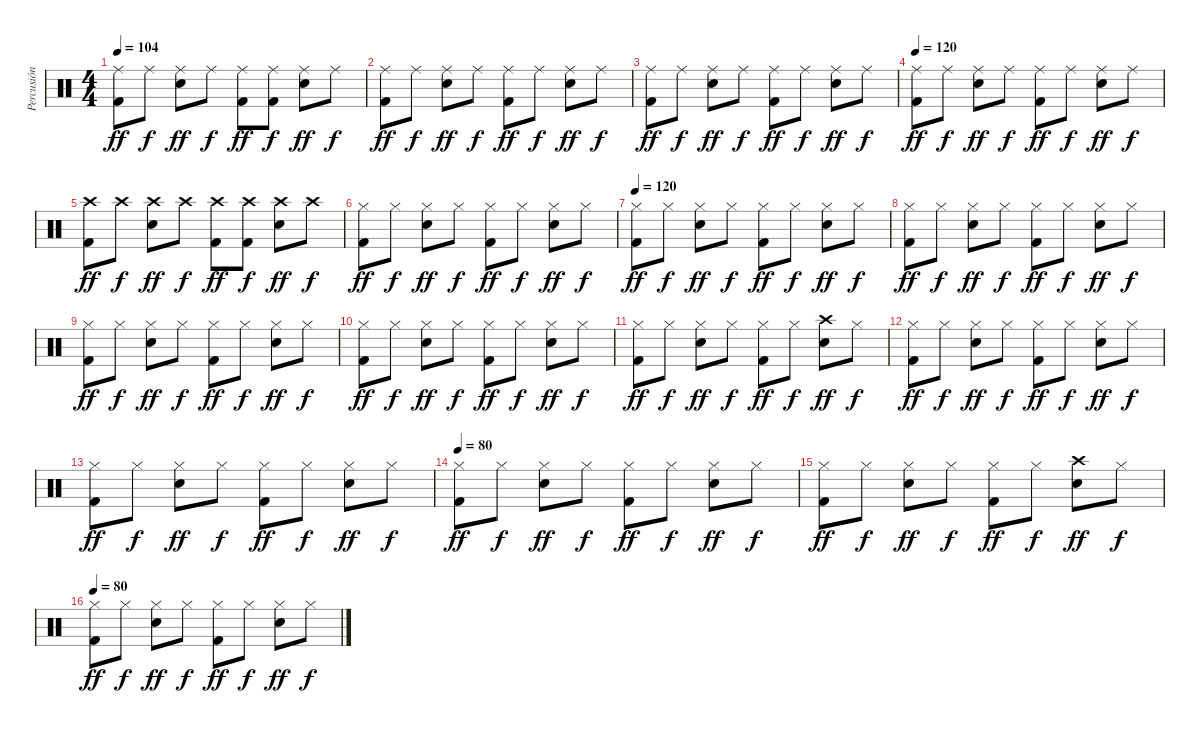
\track ("Percusión" "Percusión") {instrument percussion}
\staff {score}
\articulation defaults
\ts (4 4)
\tempo 104
\clef neutral
\ks c
("Ride (middle)" "Kick (hit) 2").8{dy ff} "Ride (middle)".8{dy f} ("Ride (middle)" "Snare (hit) 2").8{dy ff} "Ride (middle)".8{dy f} ("Ride (middle)" "Kick (hit) 2").8{dy ff} ("Ride (middle)" "Kick (hit) 2").8{dy f} ("Ride (middle)" "Snare (hit) 2").8{dy ff} "Ride (middle)".8{dy f} |
("Ride (middle)" "Kick (hit) 2").8{dy ff} "Ride (middle)".8{dy f} ("Ride (middle)" "Snare (hit) 2").8{dy ff} "Ride (middle)".8{dy f} ("Ride (middle)" "Kick (hit) 2").8{dy ff} "Ride (middle)".8{dy f} ("Ride (middle)" "Snare (hit) 2").8{dy ff} "Ride (middle)".8{dy f} |
("Ride (middle)" "Kick (hit) 2").8{dy ff} "Ride (middle)".8{dy f} ("Ride (middle)" "Snare (hit) 2").8{dy ff} "Ride (middle)".8{dy f} ("Ride (middle)" "Kick (hit) 2").8{dy ff} "Ride (middle)".8{dy f} ("Ride (middle)" "Snare (hit) 2").8{dy ff} "Ride (middle)".8{dy f} |
\tempo 120
("Ride (middle)" "Kick (hit) 2").8{dy ff} "Ride (middle)".8{dy f} ("Ride (middle)" "Snare (hit) 2").8{dy ff} "Ride (middle)".8{dy f} ("Ride (middle)" "Kick (hit) 2").8{dy ff} "Ride (middle)".8{dy f} ("Ride (middle)" "Snare (hit) 2").8{dy ff} "Ride (middle)".8{dy f} |
("Crash high (hit)" "Kick (hit) 2").8{dy ff} "Crash high (hit)".8{dy f} ("Crash high (hit)" "Snare (hit) 2").8{dy ff} "Crash high (hit)".8{dy f} ("Crash high (hit)" "Kick (hit) 2").8{dy ff} ("Crash high (hit)" "Kick (hit) 2").8{dy f} ("Crash high (hit)" "Snare (hit) 2").8{dy ff} "Crash high (hit)".8{dy f} |
("Hi-Hat (closed)" "Kick (hit) 2").8{dy ff} "Hi-Hat (closed)".8{dy f} ("Hi-Hat (closed)" "Snare (hit) 2").8{dy ff} "Hi-Hat (closed)".8{dy f} ("Hi-Hat (closed)" "Kick (hit) 2").8{dy ff} "Hi-Hat (closed)".8{dy f} ("Hi-Hat (closed)" "Snare (hit) 2").8{dy ff} "Hi-Hat (closed)".8{dy f} |
\tempo 120
("Hi-Hat (closed)" "Kick (hit) 2").8{dy ff} "Hi-Hat (closed)".8{dy f} ("Hi-Hat (closed)" "Snare (hit) 2").8{dy ff} "Hi-Hat (closed)".8{dy f} ("Hi-Hat (closed)" "Kick (hit) 2").8{dy ff} "Hi-Hat (closed)".8{dy f} ("Hi-Hat (closed)" "Snare (hit) 2").8{dy ff} "Hi-Hat (closed)".8{dy f} |
("Hi-Hat (closed)" "Kick (hit) 2").8{dy ff} "Hi-Hat (closed)".8{dy f} ("Hi-Hat (closed)" "Snare (hit) 2").8{dy ff} "Hi-Hat (closed)".8{dy f} ("Hi-Hat (closed)" "Kick (hit) 2").8{dy ff} "Hi-Hat (closed)".8{dy f} ("Hi-Hat (closed)" "Snare (hit) 2").8{dy ff} "Hi-Hat (closed)".8{dy f} |
("Hi-Hat (closed)" "Kick (hit) 2").8{dy ff} "Hi-Hat (closed)".8{dy f} ("Hi-Hat (closed)" "Snare (hit) 2").8{dy ff} "Hi-Hat (closed)".8{dy f} ("Hi-Hat (closed)" "Kick (hit) 2").8{dy ff} "Hi-Hat (closed)".8{dy f} ("Hi-Hat (closed)" "Snare (hit) 2").8{dy ff} "Hi-Hat (closed)".8{dy f} |
("Hi-Hat (closed)" "Kick (hit) 2").8{dy ff} "Hi-Hat (closed)".8{dy f} ("Hi-Hat (closed)" "Snare (hit) 2").8{dy ff} "Hi-Hat (closed)".8{dy f} ("Hi-Hat (closed)" "Kick (hit) 2").8{dy ff} "Hi-Hat (closed)".8{dy f} ("Hi-Hat (closed)" "Snare (hit) 2").8{dy ff} "Hi-Hat (closed)".8{dy f} |
("Hi-Hat (closed)" "Kick (hit) 2").8{dy ff} "Hi-Hat (closed)".8{dy f} ("Hi-Hat (closed)" "Snare (hit) 2").8{dy ff} "Hi-Hat (closed)".8{dy f} ("Hi-Hat (closed)" "Kick (hit) 2").8{dy ff} "Hi-Hat (closed)".8{dy f} ("Crash high (hit)" "Snare (hit) 2").8{dy ff} "Hi-Hat (closed)".8{dy f} |
("Hi-Hat (closed)" "Kick (hit) 2").8{dy ff} "Hi-Hat (closed)".8{dy f} ("Hi-Hat (closed)" "Snare (hit) 2").8{dy ff} "Hi-Hat (closed)".8{dy f} ("Hi-Hat (closed)" "Kick (hit) 2").8{dy ff} "Hi-Hat (closed)".8{dy f} ("Hi-Hat (closed)" "Snare (hit) 2").8{dy ff} "Hi-Hat (closed)".8{dy f} |
("Hi-Hat (closed)" "Kick (hit) 2").8{dy ff} "Hi-Hat (closed)".8{dy f} ("Hi-Hat (closed)" "Snare (hit) 2").8{dy ff} "Hi-Hat (closed)".8{dy f} ("Hi-Hat (closed)" "Kick (hit) 2").8{dy ff} "Hi-Hat (closed)".8{dy f} ("Hi-Hat (closed)" "Snare (hit) 2").8{dy ff} "Hi-Hat (closed)".8{dy f} |
\tempo 80
("Hi-Hat (closed)" "Kick (hit) 2").8{dy ff} "Hi-Hat (closed)".8{dy f} ("Hi-Hat (closed)" "Snare (hit) 2").8{dy ff} "Hi-Hat (closed)".8{dy f} ("Hi-Hat (closed)" "Kick (hit) 2").8{dy ff} "Hi-Hat (closed)".8{dy f} ("Hi-Hat (closed)" "Snare (hit) 2").8{dy ff} "Hi-Hat (closed)".8{dy f} |
("Hi-Hat (closed)" "Kick (hit) 2").8{dy ff} "Hi-Hat (closed)".8{dy f} ("Hi-Hat (closed)" "Snare (hit) 2").8{dy ff} "Hi-Hat (closed)".8{dy f} ("Hi-Hat (closed)" "Kick (hit) 2").8{dy ff} "Hi-Hat (closed)".8{dy f} ("Crash high (hit)" "Snare (hit) 2").8{dy ff} "Hi-Hat (closed)".8{dy f} |
\tempo 80
("Hi-Hat (closed)" "Kick (hit) 2").8{dy ff} "Hi-Hat (closed)".8{dy f} ("Hi-Hat (closed)" "Snare (hit) 2").8{dy ff} "Hi-Hat (closed)".8{dy f} ("Hi-Hat (closed)" "Kick (hit) 2").8{dy ff} "Hi-Hat (closed)".8{dy f} ("Hi-Hat (closed)" "Snare (hit) 2").8{dy ff} "Hi-Hat (closed)".8{dy f}
